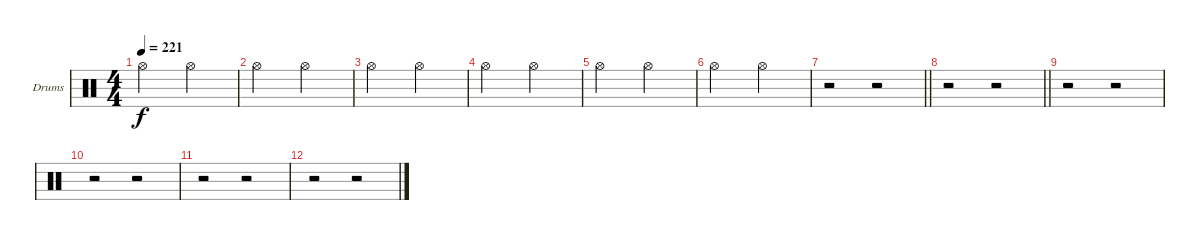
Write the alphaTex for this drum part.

\bracketExtendMode groupsimilarinstruments
\firstSystemTrackNameOrientation horizontal
\otherSystemsTrackNameOrientation horizontal
\track ("Drumkit" "Drums") {instrument percussion}
\staff {score}
\articulation defaults
\ts (4 4)
\tempo 221
\clef neutral
\ks c "Hi-Hat (open)".2{dy f} "Hi-Hat (open)".2
|
"Hi-Hat (open)".2 "Hi-Hat (open)".2 |
"Hi-Hat (open)".2 "Hi-Hat (open)".2 |
"Hi-Hat (open)".2 "Hi-Hat (open)".2 |
"Hi-Hat (open)".2 "Hi-Hat (open)".2 |
"Hi-Hat (open)".2 "Hi-Hat (open)".2 |
\barLineRight lightlight
r.2 r.2 |
\barLineRight lightlight
r.2 r.2 |
r.2 r.2 |
r.2 r.2 |
r.2 r.2 |
r.2 r.2
